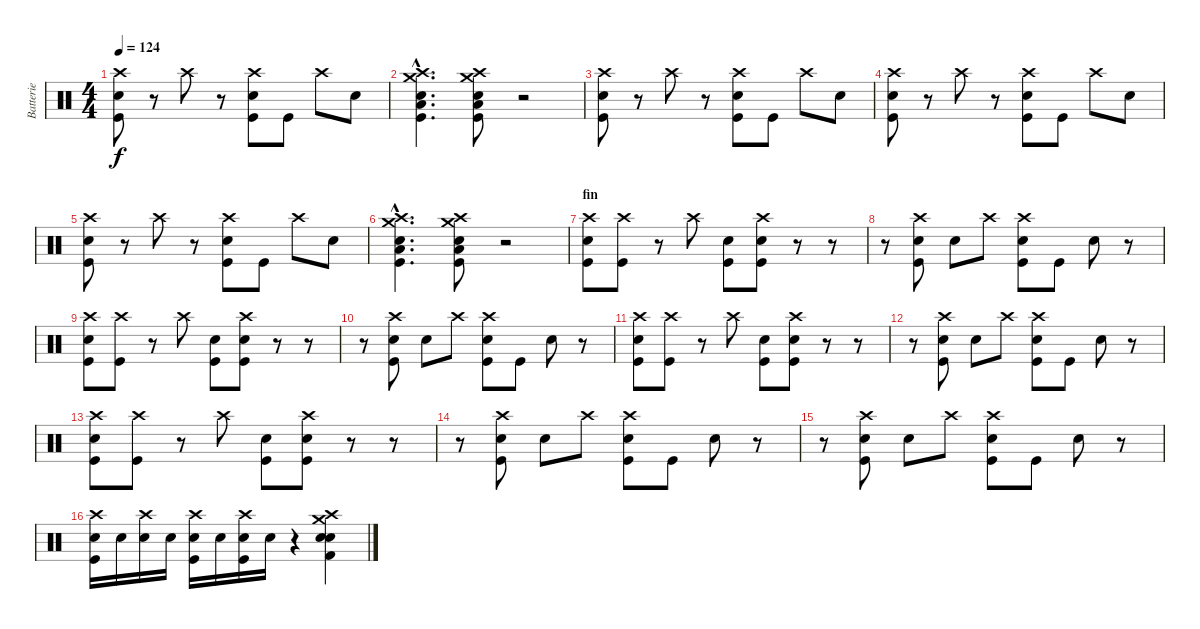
\track ("Batterie" "Batterie") {instrument percussion}
\staff {score}
\articulation defaults
\ts (4 4)
\tempo 124
\clef neutral
\ks c
("Crash high (hit)" "Snare (hit) 2" "Kick (hit)").8{dy f} r.8 "Crash high (hit)".8 r.8 ("Crash high (hit)" "Snare (hit) 2" "Kick (hit)").8 "Kick (hit)".8 "Crash high (hit)".8 "Snare (hit) 2".8 |
("Crash high (hit)"{hac} "Crash medium (hit)"{hac} "Snare (hit) 2"{hac} "Low Tom (hit)"{hac} "Kick (hit)"{hac}).4{d} ("Crash high (hit)" "Crash medium (hit)" "Snare (hit) 2" "Low Tom (hit)" "Kick (hit)").8 r.2 |
("Crash high (hit)" "Snare (hit) 2" "Kick (hit)").8 r.8 "Crash high (hit)".8 r.8 ("Crash high (hit)" "Snare (hit) 2" "Kick (hit)").8 "Kick (hit)".8 "Crash high (hit)".8 "Snare (hit) 2".8 |
("Crash high (hit)" "Snare (hit) 2" "Kick (hit)").8 r.8 "Crash high (hit)".8 r.8 ("Crash high (hit)" "Snare (hit) 2" "Kick (hit)").8 "Kick (hit)".8 "Crash high (hit)".8 "Snare (hit) 2".8 |
("Crash high (hit)" "Snare (hit) 2" "Kick (hit)").8 r.8 "Crash high (hit)".8 r.8 ("Crash high (hit)" "Snare (hit) 2" "Kick (hit)").8 "Kick (hit)".8 "Crash high (hit)".8 "Snare (hit) 2".8 |
("Crash high (hit)"{hac} "Crash medium (hit)"{hac} "Snare (hit) 2"{hac} "Low Tom (hit)"{hac} "Kick (hit)"{hac}).4{d} ("Crash high (hit)" "Crash medium (hit)" "Snare (hit) 2" "Low Tom (hit)" "Kick (hit)").8 r.2 |
\section ("" "fin")
("Crash high (hit)" "Snare (hit) 2" "Kick (hit)").8 ("Crash high (hit)" "Kick (hit)").8 r.8 "Crash high (hit)".8 ("Snare (hit) 2" "Kick (hit)").8 ("Crash high (hit)" "Snare (hit) 2" "Kick (hit)").8 r.8 r.8 |
r.8 ("Crash high (hit)" "Snare (hit) 2" "Kick (hit)").8 "Snare (hit) 2".8 "Crash high (hit)".8 ("Crash high (hit)" "Snare (hit) 2" "Kick (hit)").8 "Kick (hit)".8 "Snare (hit) 2".8 r.8 |
("Crash high (hit)" "Snare (hit) 2" "Kick (hit)").8 ("Crash high (hit)" "Kick (hit)").8 r.8 "Crash high (hit)".8 ("Snare (hit) 2" "Kick (hit)").8 ("Crash high (hit)" "Snare (hit) 2" "Kick (hit)").8 r.8 r.8 |
r.8 ("Crash high (hit)" "Snare (hit) 2" "Kick (hit)").8 "Snare (hit) 2".8 "Crash high (hit)".8 ("Crash high (hit)" "Snare (hit) 2" "Kick (hit)").8 "Kick (hit)".8 "Snare (hit) 2".8 r.8 |
("Crash high (hit)" "Snare (hit) 2" "Kick (hit)").8 ("Crash high (hit)" "Kick (hit)").8 r.8 "Crash high (hit)".8 ("Snare (hit) 2" "Kick (hit)").8 ("Crash high (hit)" "Snare (hit) 2" "Kick (hit)").8 r.8 r.8 |
r.8 ("Crash high (hit)" "Snare (hit) 2" "Kick (hit)").8 "Snare (hit) 2".8 "Crash high (hit)".8 ("Crash high (hit)" "Snare (hit) 2" "Kick (hit)").8 "Kick (hit)".8 "Snare (hit) 2".8 r.8 |
("Crash high (hit)" "Snare (hit) 2" "Kick (hit)").8 ("Crash high (hit)" "Kick (hit)").8 r.8 "Crash high (hit)".8 ("Snare (hit) 2" "Kick (hit)").8 ("Crash high (hit)" "Snare (hit) 2" "Kick (hit)").8 r.8 r.8 |
r.8 ("Crash high (hit)" "Snare (hit) 2" "Kick (hit)").8 "Snare (hit) 2".8 "Crash high (hit)".8 ("Crash high (hit)" "Snare (hit) 2" "Kick (hit)").8 "Kick (hit)".8 "Snare (hit) 2".8 r.8 |
r.8 ("Crash high (hit)" "Snare (hit) 2" "Kick (hit)").8 "Snare (hit) 2".8 "Crash high (hit)".8 ("Crash high (hit)" "Snare (hit) 2" "Kick (hit)").8 "Kick (hit)".8 "Snare (hit) 2".8 r.8 |
("Crash high (hit)" "Snare (hit) 2" "Kick (hit)").16 "Snare (hit) 2".16 ("Crash high (hit)" "Snare (hit) 2").16 "Snare (hit) 2".16 ("Crash high (hit)" "Snare (hit) 2" "Kick (hit)").16 "Snare (hit) 2".16 ("Crash high (hit)" "Snare (hit) 2" "Kick (hit)").16 "Snare (hit) 2".16 r.4 ("Crash high (hit)" "Crash medium (hit)" "Snare (hit) 2" "Electric Snare (hit)" "Kick (hit) 2").4
